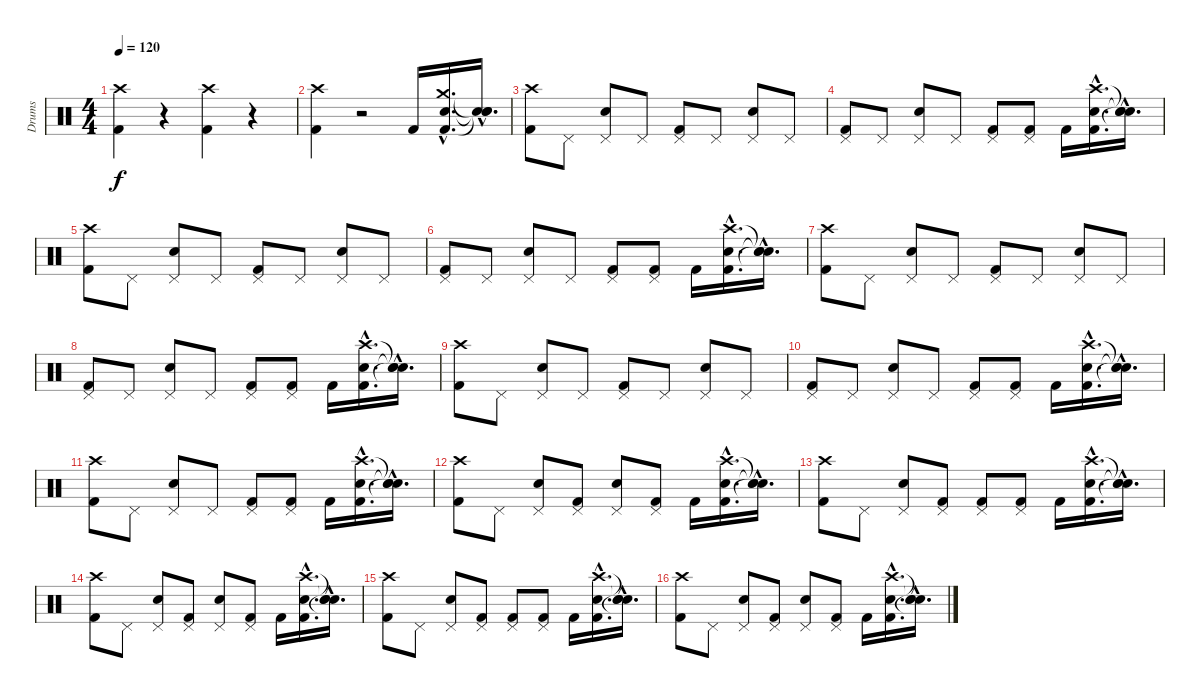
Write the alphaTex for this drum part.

\track ("Drums" "Drums") {instrument percussion}
\staff {score}
\articulation defaults
\ts (4 4)
\tempo 120
\clef neutral
\ks c
("Crash high (hit)" "Kick (hit) 2").4{dy f} r.4 ("Crash high (hit)" "Kick (hit) 2").4 r.4 |
("Crash high (hit)" "Kick (hit) 2").4 r.2 "Kick (hit) 2".16 ("Crash medium (hit)"{hac} "Electric Snare (hit)"{hac} "Kick (hit) 2"{hac}).16{d} ("Snare (hit)"{hac t} "Snare (hit)"{hac t} "Snare (hit)"{hac t}).16{d} |
("Crash high (hit)" "Kick (hit) 2").8 "Pedal Hi-Hat (hit)".8 ("Pedal Hi-Hat (hit)" "Electric Snare (hit)").8 "Pedal Hi-Hat (hit)".8 ("Pedal Hi-Hat (hit)" "Kick (hit) 2").8 "Pedal Hi-Hat (hit)".8 ("Pedal Hi-Hat (hit)" "Electric Snare (hit)").8 "Pedal Hi-Hat (hit)".8 |
("Pedal Hi-Hat (hit)" "Kick (hit) 2").8 "Pedal Hi-Hat (hit)".8 ("Pedal Hi-Hat (hit)" "Electric Snare (hit)").8 "Pedal Hi-Hat (hit)".8 ("Pedal Hi-Hat (hit)" "Kick (hit) 2").8 ("Pedal Hi-Hat (hit)" "Kick (hit) 2").8 "Kick (hit) 2".16 ("Crash high (hit)"{hac} "Electric Snare (hit)"{hac} "Kick (hit) 2"{hac}).16{d} ("Snare (hit)"{hac t} "Snare (hit)"{hac t} "Snare (hit)"{hac t}).16{d} |
("Crash high (hit)" "Kick (hit) 2").8 "Pedal Hi-Hat (hit)".8 ("Pedal Hi-Hat (hit)" "Electric Snare (hit)").8 "Pedal Hi-Hat (hit)".8 ("Pedal Hi-Hat (hit)" "Kick (hit) 2").8 "Pedal Hi-Hat (hit)".8 ("Pedal Hi-Hat (hit)" "Electric Snare (hit)").8 "Pedal Hi-Hat (hit)".8 |
("Pedal Hi-Hat (hit)" "Kick (hit) 2").8 "Pedal Hi-Hat (hit)".8 ("Pedal Hi-Hat (hit)" "Electric Snare (hit)").8 "Pedal Hi-Hat (hit)".8 ("Pedal Hi-Hat (hit)" "Kick (hit) 2").8 ("Pedal Hi-Hat (hit)" "Kick (hit) 2").8 "Kick (hit) 2".16 ("Crash high (hit)"{hac} "Electric Snare (hit)"{hac} "Kick (hit) 2"{hac}).16{d} ("Snare (hit)"{hac t} "Snare (hit)"{hac t} "Snare (hit)"{hac t}).16{d} |
("Crash high (hit)" "Kick (hit) 2").8 "Pedal Hi-Hat (hit)".8 ("Pedal Hi-Hat (hit)" "Electric Snare (hit)").8 "Pedal Hi-Hat (hit)".8 ("Pedal Hi-Hat (hit)" "Kick (hit) 2").8 "Pedal Hi-Hat (hit)".8 ("Pedal Hi-Hat (hit)" "Electric Snare (hit)").8 "Pedal Hi-Hat (hit)".8 |
("Pedal Hi-Hat (hit)" "Kick (hit) 2").8 "Pedal Hi-Hat (hit)".8 ("Pedal Hi-Hat (hit)" "Electric Snare (hit)").8 "Pedal Hi-Hat (hit)".8 ("Pedal Hi-Hat (hit)" "Kick (hit) 2").8 ("Pedal Hi-Hat (hit)" "Kick (hit) 2").8 "Kick (hit) 2".16 ("Crash high (hit)"{hac} "Electric Snare (hit)"{hac} "Kick (hit) 2"{hac}).16{d} ("Snare (hit)"{hac t} "Snare (hit)"{hac t} "Snare (hit)"{hac t}).16{d} |
("Crash high (hit)" "Kick (hit) 2").8 "Pedal Hi-Hat (hit)".8 ("Pedal Hi-Hat (hit)" "Electric Snare (hit)").8 "Pedal Hi-Hat (hit)".8 ("Pedal Hi-Hat (hit)" "Kick (hit) 2").8 "Pedal Hi-Hat (hit)".8 ("Pedal Hi-Hat (hit)" "Electric Snare (hit)").8 "Pedal Hi-Hat (hit)".8 |
("Pedal Hi-Hat (hit)" "Kick (hit) 2").8 "Pedal Hi-Hat (hit)".8 ("Pedal Hi-Hat (hit)" "Electric Snare (hit)").8 "Pedal Hi-Hat (hit)".8 ("Pedal Hi-Hat (hit)" "Kick (hit) 2").8 ("Pedal Hi-Hat (hit)" "Kick (hit) 2").8 "Kick (hit) 2".16 ("Crash high (hit)"{hac} "Electric Snare (hit)"{hac} "Kick (hit) 2"{hac}).16{d} ("Snare (hit)"{hac t} "Snare (hit)"{hac t} "Snare (hit)"{hac t}).16{d} |
("Crash high (hit)" "Kick (hit) 2").8 "Pedal Hi-Hat (hit)".8 ("Pedal Hi-Hat (hit)" "Electric Snare (hit)").8 "Pedal Hi-Hat (hit)".8 ("Pedal Hi-Hat (hit)" "Kick (hit) 2").8 ("Pedal Hi-Hat (hit)" "Kick (hit) 2").8 "Kick (hit) 2".16 ("Crash high (hit)"{hac} "Electric Snare (hit)"{hac} "Kick (hit) 2"{hac}).16{d} ("Snare (hit)"{hac t} "Snare (hit)"{hac t} "Snare (hit)"{hac t}).16{d} |
("Crash high (hit)" "Kick (hit) 2").8 "Pedal Hi-Hat (hit)".8 ("Pedal Hi-Hat (hit)" "Electric Snare (hit)").8 ("Pedal Hi-Hat (hit)" "Kick (hit) 2").8 ("Pedal Hi-Hat (hit)" "Electric Snare (hit)").8 ("Pedal Hi-Hat (hit)" "Kick (hit) 2").8 "Kick (hit) 2".16 ("Crash high (hit)"{hac} "Electric Snare (hit)"{hac} "Kick (hit) 2"{hac}).16{d} ("Snare (hit)"{hac t} "Snare (hit)"{hac t} "Snare (hit)"{hac t}).16{d} |
("Crash high (hit)" "Kick (hit) 2").8 "Pedal Hi-Hat (hit)".8 ("Pedal Hi-Hat (hit)" "Electric Snare (hit)").8 ("Pedal Hi-Hat (hit)" "Kick (hit) 2").8 ("Pedal Hi-Hat (hit)" "Kick (hit) 2").8 ("Pedal Hi-Hat (hit)" "Kick (hit) 2").8 "Kick (hit) 2".16 ("Crash high (hit)"{hac} "Electric Snare (hit)"{hac} "Kick (hit) 2"{hac}).16{d} ("Snare (hit)"{hac t} "Snare (hit)"{hac t} "Snare (hit)"{hac t}).16{d} |
("Crash high (hit)" "Kick (hit) 2").8 "Pedal Hi-Hat (hit)".8 ("Pedal Hi-Hat (hit)" "Electric Snare (hit)").8 ("Pedal Hi-Hat (hit)" "Kick (hit) 2").8 ("Pedal Hi-Hat (hit)" "Electric Snare (hit)").8 ("Pedal Hi-Hat (hit)" "Kick (hit) 2").8 "Kick (hit) 2".16 ("Crash high (hit)"{hac} "Electric Snare (hit)"{hac} "Kick (hit) 2"{hac}).16{d} ("Snare (hit)"{hac t} "Snare (hit)"{hac t} "Snare (hit)"{hac t}).16{d} |
("Crash high (hit)" "Kick (hit) 2").8 "Pedal Hi-Hat (hit)".8 ("Pedal Hi-Hat (hit)" "Electric Snare (hit)").8 ("Pedal Hi-Hat (hit)" "Kick (hit) 2").8 ("Pedal Hi-Hat (hit)" "Kick (hit) 2").8 ("Pedal Hi-Hat (hit)" "Kick (hit) 2").8 "Kick (hit) 2".16 ("Crash high (hit)"{hac} "Electric Snare (hit)"{hac} "Kick (hit) 2"{hac}).16{d} ("Snare (hit)"{hac t} "Snare (hit)"{hac t} "Snare (hit)"{hac t}).16{d} |
("Crash high (hit)" "Kick (hit) 2").8 "Pedal Hi-Hat (hit)".8 ("Pedal Hi-Hat (hit)" "Electric Snare (hit)").8 ("Pedal Hi-Hat (hit)" "Kick (hit) 2").8 ("Pedal Hi-Hat (hit)" "Electric Snare (hit)").8 ("Pedal Hi-Hat (hit)" "Kick (hit) 2").8 "Kick (hit) 2".16 ("Crash high (hit)"{hac} "Electric Snare (hit)"{hac} "Kick (hit) 2"{hac}).16{d} ("Snare (hit)"{hac t} "Snare (hit)"{hac t} "Snare (hit)"{hac t}).16{d}
